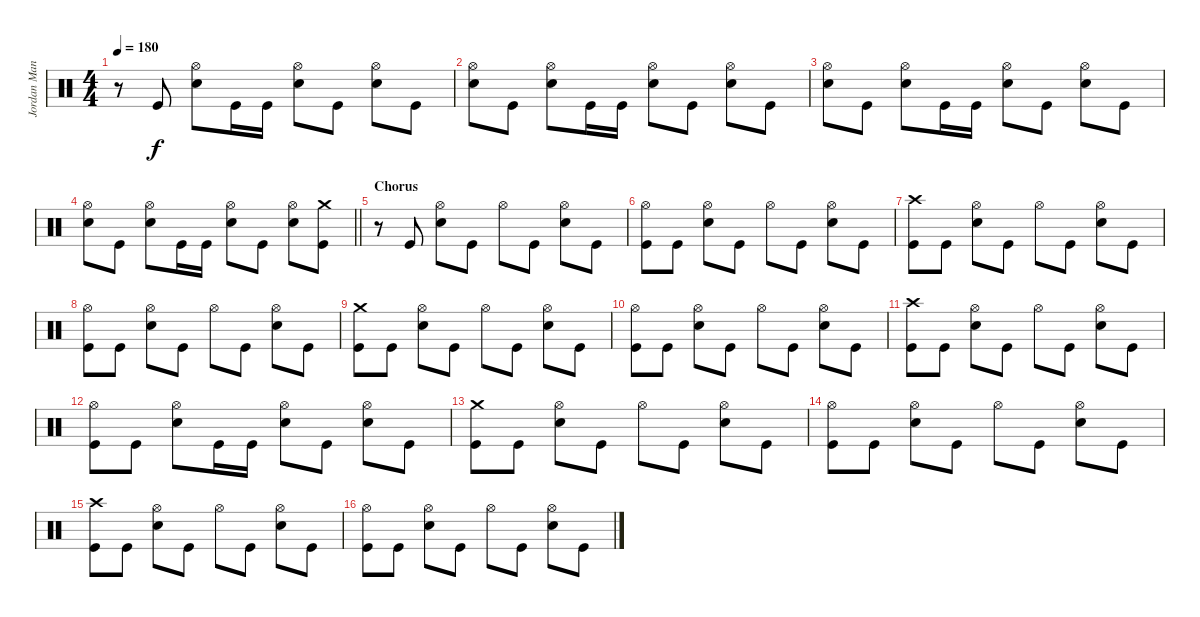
\track ("Jordan Mancino" "Jordan Man") {instrument percussion}
\staff {score}
\articulation defaults
\ts (4 4)
\tempo 180
\clef neutral
\ks c
r.8{dy f} "Kick (hit)".8 ("Hi-Hat (open)" "Snare (hit) 2").8 "Kick (hit)".16 "Kick (hit)".16 ("Hi-Hat (open)" "Snare (hit) 2").8 "Kick (hit)".8 ("Hi-Hat (open)" "Snare (hit) 2").8 "Kick (hit)".8 |
("Hi-Hat (open)" "Snare (hit) 2").8 "Kick (hit)".8 ("Hi-Hat (open)" "Snare (hit) 2").8 "Kick (hit)".16 "Kick (hit)".16 ("Hi-Hat (open)" "Snare (hit) 2").8 "Kick (hit)".8 ("Hi-Hat (open)" "Snare (hit) 2").8 "Kick (hit)".8 |
("Hi-Hat (open)" "Snare (hit) 2").8 "Kick (hit)".8 ("Hi-Hat (open)" "Snare (hit) 2").8 "Kick (hit)".16 "Kick (hit)".16 ("Hi-Hat (open)" "Snare (hit) 2").8 "Kick (hit)".8 ("Hi-Hat (open)" "Snare (hit) 2").8 "Kick (hit)".8 |
\barLineRight lightlight
("Hi-Hat (open)" "Snare (hit) 2").8 "Kick (hit)".8 ("Hi-Hat (open)" "Snare (hit) 2").8 "Kick (hit)".16 "Kick (hit)".16 ("Hi-Hat (open)" "Snare (hit) 2").8 "Kick (hit)".8 ("Hi-Hat (open)" "Snare (hit) 2").8 ("Crash medium (hit)" "Kick (hit)").8 |
\section ("" "Chorus")
r.8 "Kick (hit)".8 ("Hi-Hat (open)" "Snare (hit) 2").8 "Kick (hit)".8 "Hi-Hat (open)".8 "Kick (hit)".8 ("Hi-Hat (open)" "Snare (hit) 2").8 "Kick (hit)".8 |
("Hi-Hat (open)" "Kick (hit)").8 "Kick (hit)".8 ("Hi-Hat (open)" "Snare (hit) 2").8 "Kick (hit)".8 "Hi-Hat (open)".8 "Kick (hit)".8 ("Hi-Hat (open)" "Snare (hit) 2").8 "Kick (hit)".8 |
("Crash high (hit)" "Kick (hit)").8 "Kick (hit)".8 ("Hi-Hat (open)" "Snare (hit) 2").8 "Kick (hit)".8 "Hi-Hat (open)".8 "Kick (hit)".8 ("Hi-Hat (open)" "Snare (hit) 2").8 "Kick (hit)".8 |
("Hi-Hat (open)" "Kick (hit)").8 "Kick (hit)".8 ("Hi-Hat (open)" "Snare (hit) 2").8 "Kick (hit)".8 "Hi-Hat (open)".8 "Kick (hit)".8 ("Hi-Hat (open)" "Snare (hit) 2").8 "Kick (hit)".8 |
("Crash medium (hit)" "Kick (hit)").8 "Kick (hit)".8 ("Hi-Hat (open)" "Snare (hit) 2").8 "Kick (hit)".8 "Hi-Hat (open)".8 "Kick (hit)".8 ("Hi-Hat (open)" "Snare (hit) 2").8 "Kick (hit)".8 |
("Hi-Hat (open)" "Kick (hit)").8 "Kick (hit)".8 ("Hi-Hat (open)" "Snare (hit) 2").8 "Kick (hit)".8 "Hi-Hat (open)".8 "Kick (hit)".8 ("Hi-Hat (open)" "Snare (hit) 2").8 "Kick (hit)".8 |
("Crash high (hit)" "Kick (hit)").8 "Kick (hit)".8 ("Hi-Hat (open)" "Snare (hit) 2").8 "Kick (hit)".8 "Hi-Hat (open)".8 "Kick (hit)".8 ("Hi-Hat (open)" "Snare (hit) 2").8 "Kick (hit)".8 |
("Hi-Hat (open)" "Kick (hit)").8 "Kick (hit)".8 ("Hi-Hat (open)" "Snare (hit) 2").8 "Kick (hit)".16 "Kick (hit)".16 ("Hi-Hat (open)" "Snare (hit) 2").8 "Kick (hit)".8 ("Hi-Hat (open)" "Snare (hit) 2").8 "Kick (hit)".8 |
("Crash medium (hit)" "Kick (hit)").8 "Kick (hit)".8 ("Hi-Hat (open)" "Snare (hit) 2").8 "Kick (hit)".8 "Hi-Hat (open)".8 "Kick (hit)".8 ("Hi-Hat (open)" "Snare (hit) 2").8 "Kick (hit)".8 |
("Hi-Hat (open)" "Kick (hit)").8 "Kick (hit)".8 ("Hi-Hat (open)" "Snare (hit) 2").8 "Kick (hit)".8 "Hi-Hat (open)".8 "Kick (hit)".8 ("Hi-Hat (open)" "Snare (hit) 2").8 "Kick (hit)".8 |
("Crash high (hit)" "Kick (hit)").8 "Kick (hit)".8 ("Hi-Hat (open)" "Snare (hit) 2").8 "Kick (hit)".8 "Hi-Hat (open)".8 "Kick (hit)".8 ("Hi-Hat (open)" "Snare (hit) 2").8 "Kick (hit)".8 |
("Hi-Hat (open)" "Kick (hit)").8 "Kick (hit)".8 ("Hi-Hat (open)" "Snare (hit) 2").8 "Kick (hit)".8 "Hi-Hat (open)".8 "Kick (hit)".8 ("Hi-Hat (open)" "Snare (hit) 2").8 "Kick (hit)".8
